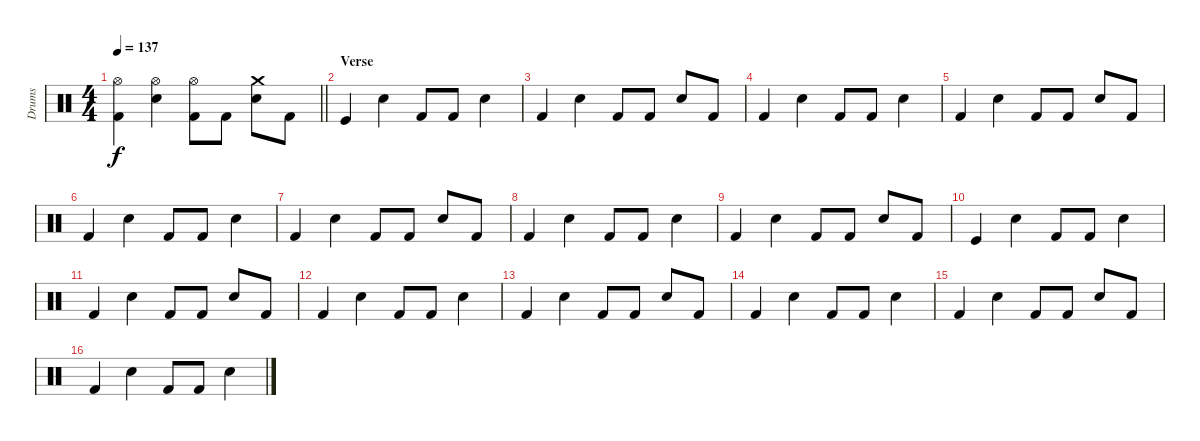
\track ("Drums" "Drums") {instrument percussion}
\staff {score}
\articulation defaults
\ts (4 4)
\tempo 137
\clef neutral
\barLineRight lightlight
\ks c
("Hi-Hat (open)" "Kick (hit) 2").4{dy f} ("Hi-Hat (open)" "Electric Snare (hit)").4 ("Hi-Hat (open)" "Kick (hit) 2").8 "Kick (hit) 2".8 ("Crash medium (hit)" "Electric Snare (hit)").8 "Kick (hit) 2".8 |
\section ("" "Verse ")
"Kick (hit)".4 "Electric Snare (hit)".4 "Kick (hit) 2".8 "Kick (hit) 2".8 "Electric Snare (hit)".4 |
"Kick (hit) 2".4 "Electric Snare (hit)".4 "Kick (hit) 2".8 "Kick (hit) 2".8 "Electric Snare (hit)".8 "Kick (hit) 2".8 |
"Kick (hit) 2".4 "Electric Snare (hit)".4 "Kick (hit) 2".8 "Kick (hit) 2".8 "Electric Snare (hit)".4 |
"Kick (hit) 2".4 "Electric Snare (hit)".4 "Kick (hit) 2".8 "Kick (hit) 2".8 "Electric Snare (hit)".8 "Kick (hit) 2".8 |
"Kick (hit) 2".4 "Electric Snare (hit)".4 "Kick (hit) 2".8 "Kick (hit) 2".8 "Electric Snare (hit)".4 |
"Kick (hit) 2".4 "Electric Snare (hit)".4 "Kick (hit) 2".8 "Kick (hit) 2".8 "Electric Snare (hit)".8 "Kick (hit) 2".8 |
"Kick (hit) 2".4 "Electric Snare (hit)".4 "Kick (hit) 2".8 "Kick (hit) 2".8 "Electric Snare (hit)".4 |
"Kick (hit) 2".4 "Electric Snare (hit)".4 "Kick (hit) 2".8 "Kick (hit) 2".8 "Electric Snare (hit)".8 "Kick (hit) 2".8 |
"Kick (hit)".4 "Electric Snare (hit)".4 "Kick (hit) 2".8 "Kick (hit) 2".8 "Electric Snare (hit)".4 |
"Kick (hit) 2".4 "Electric Snare (hit)".4 "Kick (hit) 2".8 "Kick (hit) 2".8 "Electric Snare (hit)".8 "Kick (hit) 2".8 |
"Kick (hit) 2".4 "Electric Snare (hit)".4 "Kick (hit) 2".8 "Kick (hit) 2".8 "Electric Snare (hit)".4 |
"Kick (hit) 2".4 "Electric Snare (hit)".4 "Kick (hit) 2".8 "Kick (hit) 2".8 "Electric Snare (hit)".8 "Kick (hit) 2".8 |
"Kick (hit) 2".4 "Electric Snare (hit)".4 "Kick (hit) 2".8 "Kick (hit) 2".8 "Electric Snare (hit)".4 |
"Kick (hit) 2".4 "Electric Snare (hit)".4 "Kick (hit) 2".8 "Kick (hit) 2".8 "Electric Snare (hit)".8 "Kick (hit) 2".8 |
"Kick (hit) 2".4 "Electric Snare (hit)".4 "Kick (hit) 2".8 "Kick (hit) 2".8 "Electric Snare (hit)".4
